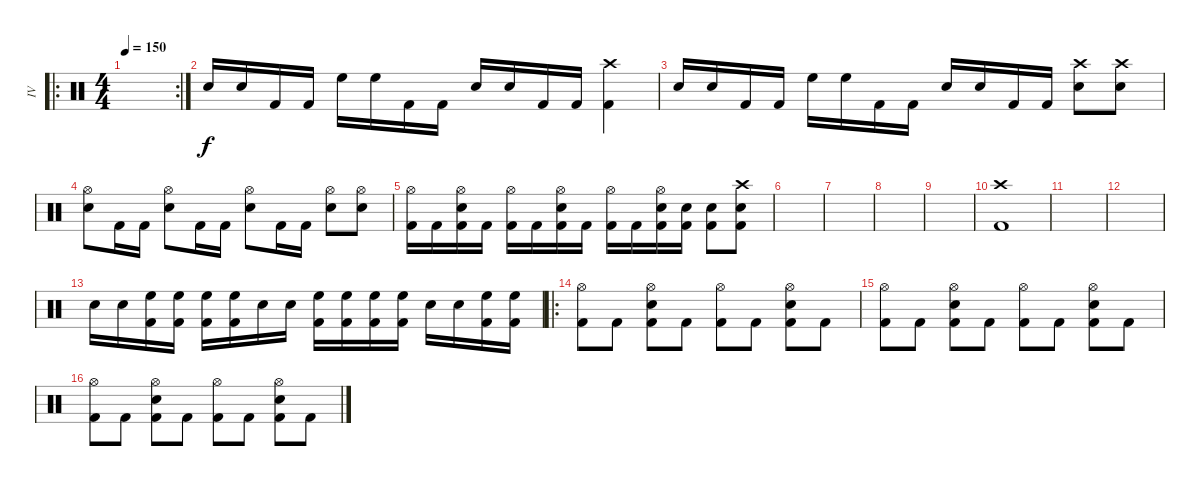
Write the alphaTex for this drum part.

\track ("IV" "IV") {instrument percussion}
\staff {score}
\articulation defaults
\ro
\rc 2
\ts (4 4)
\tempo 150
\clef neutral
\ks c
|
"Snare (hit) 2".16 "Snare (hit) 2".16 "Kick (hit) 2".16 "Kick (hit) 2".16 "High Floor Tom (hit)".16 "High Floor Tom (hit)".16 "Kick (hit) 2".16 "Kick (hit) 2".16 "Snare (hit) 2".16 "Snare (hit) 2".16 "Kick (hit) 2".16 "Kick (hit) 2".16 ("Crash high (hit)" "Kick (hit) 2").4 |
"Snare (hit) 2".16 "Snare (hit) 2".16 "Kick (hit) 2".16 "Kick (hit) 2".16 "High Floor Tom (hit)".16 "High Floor Tom (hit)".16 "Kick (hit) 2".16 "Kick (hit) 2".16 "Snare (hit) 2".16 "Snare (hit) 2".16 "Kick (hit) 2".16 "Kick (hit) 2".16 ("Crash high (hit)" "Snare (hit) 2").8 ("Crash high (hit)" "Snare (hit) 2").8 |
("Hi-Hat (open)" "Snare (hit) 2").8 "Kick (hit) 2".16 "Kick (hit) 2".16 ("Hi-Hat (open)" "Snare (hit) 2").8 "Kick (hit) 2".16 "Kick (hit) 2".16 ("Hi-Hat (open)" "Snare (hit) 2").8 "Kick (hit) 2".16 "Kick (hit) 2".16 ("Hi-Hat (open)" "Snare (hit) 2").8 ("Hi-Hat (open)" "Snare (hit) 2").8 |
("Hi-Hat (open)" "Kick (hit) 2").16 "Kick (hit) 2".16 ("Hi-Hat (open)" "Snare (hit) 2" "Kick (hit) 2").16 "Kick (hit) 2".16 ("Hi-Hat (open)" "Kick (hit) 2").16 "Kick (hit) 2".16 ("Hi-Hat (open)" "Snare (hit) 2" "Kick (hit) 2").16 "Kick (hit) 2".16 ("Hi-Hat (open)" "Kick (hit) 2").16 "Kick (hit) 2".16 ("Hi-Hat (open)" "Snare (hit) 2" "Kick (hit) 2").16 ("Snare (hit) 2" "Kick (hit) 2").16 ("Snare (hit) 2" "Kick (hit) 2").8 ("Crash high (hit)" "Snare (hit) 2" "Kick (hit) 2").8 |
|
|
|
|
("Crash high (hit)" "Kick (hit) 2").1 |
|
|
"Snare (hit) 2".16 "Snare (hit) 2".16 ("High Floor Tom (hit)" "Kick (hit) 2").16 ("High Floor Tom (hit)" "Kick (hit) 2").16 ("High Floor Tom (hit)" "Kick (hit) 2").16 ("High Floor Tom (hit)" "Kick (hit) 2").16 "Snare (hit) 2".16 "Snare (hit) 2".16 ("High Floor Tom (hit)" "Kick (hit) 2").16 ("High Floor Tom (hit)" "Kick (hit) 2").16 ("High Floor Tom (hit)" "Kick (hit) 2").16 ("High Floor Tom (hit)" "Kick (hit) 2").16 "Snare (hit) 2".16 "Snare (hit) 2".16 ("High Floor Tom (hit)" "Kick (hit) 2").16 ("High Floor Tom (hit)" "Kick (hit) 2").16 |
\ro
("Hi-Hat (open)" "Kick (hit) 2").8 "Kick (hit) 2".8 ("Hi-Hat (open)" "Snare (hit) 2" "Kick (hit) 2").8 "Kick (hit) 2".8 ("Hi-Hat (open)" "Kick (hit) 2").8 "Kick (hit) 2".8 ("Hi-Hat (open)" "Snare (hit) 2" "Kick (hit) 2").8 "Kick (hit) 2".8 |
("Hi-Hat (open)" "Kick (hit) 2").8 "Kick (hit) 2".8 ("Hi-Hat (open)" "Snare (hit) 2" "Kick (hit) 2").8 "Kick (hit) 2".8 ("Hi-Hat (open)" "Kick (hit) 2").8 "Kick (hit) 2".8 ("Hi-Hat (open)" "Snare (hit) 2" "Kick (hit) 2").8 "Kick (hit) 2".8 |
("Hi-Hat (open)" "Kick (hit) 2").8 "Kick (hit) 2".8 ("Hi-Hat (open)" "Snare (hit) 2" "Kick (hit) 2").8 "Kick (hit) 2".8 ("Hi-Hat (open)" "Kick (hit) 2").8 "Kick (hit) 2".8 ("Hi-Hat (open)" "Snare (hit) 2" "Kick (hit) 2").8 "Kick (hit) 2".8
